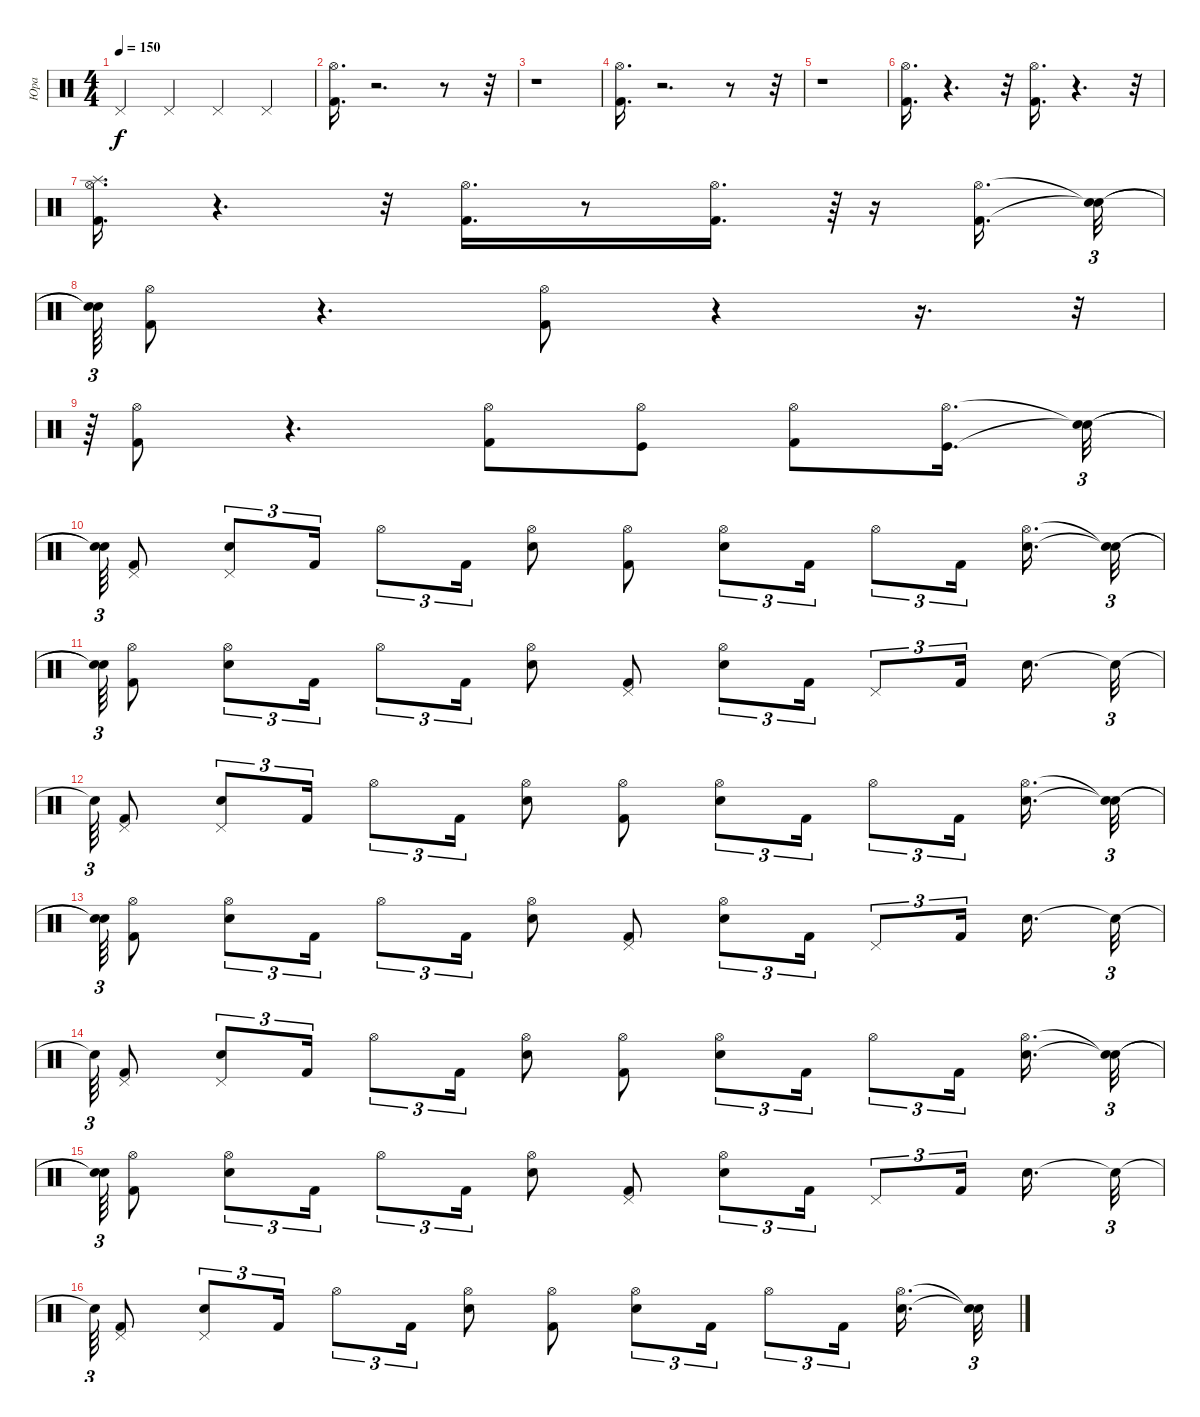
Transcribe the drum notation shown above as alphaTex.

\track ("Юра" "Юра") {instrument percussion}
\staff {score}
\articulation defaults
\ts (4 4)
\tempo 150
\clef neutral
\ks c "Pedal Hi-Hat (hit)".4{dy f} "Pedal Hi-Hat (hit)".4 "Pedal Hi-Hat (hit)".4 "Pedal Hi-Hat (hit)".4
|
("Hi-Hat (open)" "Kick (hit) 2").16{d} r.2{d} r.8 r.32 |
r.1 |
("Hi-Hat (open)" "Kick (hit) 2").16{d} r.2{d} r.8 r.32 |
r.1 |
("Hi-Hat (open)" "Kick (hit) 2").16{d} r.4{d} r.32 ("Hi-Hat (open)" "Kick (hit) 2").16{d} r.4{d} r.32 |
("Splash (hit)" "Hi-Hat (open)" "Kick (hit) 2").16{d} r.4{d} r.32 ("Hi-Hat (open)" "Kick (hit) 2").16{d} r.8 ("Hi-Hat (open)" "Kick (hit) 2").16{d} r.64{tu (3 2)} r.16 ("Hi-Hat (open)" "Kick (hit) 2").16{d} ("Snare (hit)"{t} "Snare (hit)"{t}).32{tu (3 2)} |
("Snare (hit)"{t} "Snare (hit)"{t}).64{tu (3 2)} ("Hi-Hat (open)" "Kick (hit) 2").8 r.4{d} ("Hi-Hat (open)" "Kick (hit) 2").8 r.4 r.16{d} r.32{tu (3 2)} |
r.64{tu (3 2)} ("Hi-Hat (open)" "Kick (hit) 2").8 r.4{d} ("Kick (hit) 2" "Hi-Hat (open)").8 ("Kick (hit)" "Hi-Hat (open)").8 ("Kick (hit) 2" "Hi-Hat (open)").8 ("Kick (hit)" "Hi-Hat (open)").16{d} ("Snare (hit)"{t} "Snare (hit)"{t}).32{tu (3 2)} |
("Snare (hit)"{t} "Snare (hit)"{t}).64{tu (3 2)} ("Pedal Hi-Hat (hit)" "Kick (hit) 2").8 ("Pedal Hi-Hat (hit)" "Electric Snare (hit)").8{tu (3 2)} "Kick (hit) 2".16{tu (3 2)} "Hi-Hat (open)".8{tu (3 2)} "Kick (hit) 2".16{tu (3 2)} ("Hi-Hat (open)" "Electric Snare (hit)").8 ("Hi-Hat (open)" "Kick (hit) 2").8 ("Hi-Hat (open)" "Electric Snare (hit)").8{tu (3 2)} "Kick (hit) 2".16{tu (3 2)} "Hi-Hat (open)".8{tu (3 2)} "Kick (hit) 2".16{tu (3 2) beam splitsecondary} ("Hi-Hat (open)" "Electric Snare (hit)").16{d} ("Snare (hit)"{t} "Snare (hit)"{t}).32{tu (3 2)} |
("Snare (hit)"{t} "Snare (hit)"{t}).64{tu (3 2)} ("Hi-Hat (open)" "Kick (hit) 2").8 ("Hi-Hat (open)" "Electric Snare (hit)").8{tu (3 2)} "Kick (hit) 2".16{tu (3 2)} "Hi-Hat (open)".8{tu (3 2)} "Kick (hit) 2".16{tu (3 2)} ("Electric Snare (hit)" "Hi-Hat (open)").8 ("Pedal Hi-Hat (hit)" "Kick (hit) 2").8 ("Hi-Hat (open)" "Electric Snare (hit)").8{tu (3 2)} "Kick (hit) 2".16{tu (3 2)} "Pedal Hi-Hat (hit)".8{tu (3 2)} "Kick (hit) 2".16{tu (3 2) beam splitsecondary} "Electric Snare (hit)".16{d} "Snare (hit)"{t}.32{tu (3 2)} |
"Snare (hit)"{t}.64{tu (3 2)} ("Pedal Hi-Hat (hit)" "Kick (hit) 2").8 ("Pedal Hi-Hat (hit)" "Electric Snare (hit)").8{tu (3 2)} "Kick (hit) 2".16{tu (3 2)} "Hi-Hat (open)".8{tu (3 2)} "Kick (hit) 2".16{tu (3 2)} ("Hi-Hat (open)" "Electric Snare (hit)").8 ("Hi-Hat (open)" "Kick (hit) 2").8 ("Hi-Hat (open)" "Electric Snare (hit)").8{tu (3 2)} "Kick (hit) 2".16{tu (3 2)} "Hi-Hat (open)".8{tu (3 2)} "Kick (hit) 2".16{tu (3 2) beam splitsecondary} ("Hi-Hat (open)" "Electric Snare (hit)").16{d} ("Snare (hit)"{t} "Snare (hit)"{t}).32{tu (3 2)} |
("Snare (hit)"{t} "Snare (hit)"{t}).64{tu (3 2)} ("Hi-Hat (open)" "Kick (hit) 2").8 ("Hi-Hat (open)" "Electric Snare (hit)").8{tu (3 2)} "Kick (hit) 2".16{tu (3 2)} "Hi-Hat (open)".8{tu (3 2)} "Kick (hit) 2".16{tu (3 2)} ("Hi-Hat (open)" "Electric Snare (hit)").8 ("Pedal Hi-Hat (hit)" "Kick (hit) 2").8 ("Hi-Hat (open)" "Electric Snare (hit)").8{tu (3 2)} "Kick (hit) 2".16{tu (3 2)} "Pedal Hi-Hat (hit)".8{tu (3 2)} "Kick (hit) 2".16{tu (3 2) beam splitsecondary} "Electric Snare (hit)".16{d} "Snare (hit)"{t}.32{tu (3 2)} |
"Snare (hit)"{t}.64{tu (3 2)} ("Pedal Hi-Hat (hit)" "Kick (hit) 2").8 ("Pedal Hi-Hat (hit)" "Electric Snare (hit)").8{tu (3 2)} "Kick (hit) 2".16{tu (3 2)} "Hi-Hat (open)".8{tu (3 2)} "Kick (hit) 2".16{tu (3 2)} ("Hi-Hat (open)" "Electric Snare (hit)").8 ("Hi-Hat (open)" "Kick (hit) 2").8 ("Hi-Hat (open)" "Electric Snare (hit)").8{tu (3 2)} "Kick (hit) 2".16{tu (3 2)} "Hi-Hat (open)".8{tu (3 2)} "Kick (hit) 2".16{tu (3 2) beam splitsecondary} ("Hi-Hat (open)" "Electric Snare (hit)").16{d} ("Snare (hit)"{t} "Snare (hit)"{t}).32{tu (3 2)} |
("Snare (hit)"{t} "Snare (hit)"{t}).64{tu (3 2)} ("Hi-Hat (open)" "Kick (hit) 2").8 ("Hi-Hat (open)" "Electric Snare (hit)").8{tu (3 2)} "Kick (hit) 2".16{tu (3 2)} "Hi-Hat (open)".8{tu (3 2)} "Kick (hit) 2".16{tu (3 2)} ("Hi-Hat (open)" "Electric Snare (hit)").8 ("Pedal Hi-Hat (hit)" "Kick (hit) 2").8 ("Hi-Hat (open)" "Electric Snare (hit)").8{tu (3 2)} "Kick (hit) 2".16{tu (3 2)} "Pedal Hi-Hat (hit)".8{tu (3 2)} "Kick (hit) 2".16{tu (3 2) beam splitsecondary} "Electric Snare (hit)".16{d} "Snare (hit)"{t}.32{tu (3 2)} |
"Snare (hit)"{t}.64{tu (3 2)} ("Pedal Hi-Hat (hit)" "Kick (hit) 2").8 ("Pedal Hi-Hat (hit)" "Electric Snare (hit)").8{tu (3 2)} "Kick (hit) 2".16{tu (3 2)} "Hi-Hat (open)".8{tu (3 2)} "Kick (hit) 2".16{tu (3 2)} ("Hi-Hat (open)" "Electric Snare (hit)").8 ("Hi-Hat (open)" "Kick (hit) 2").8 ("Hi-Hat (open)" "Electric Snare (hit)").8{tu (3 2)} "Kick (hit) 2".16{tu (3 2)} "Hi-Hat (open)".8{tu (3 2)} "Kick (hit) 2".16{tu (3 2) beam splitsecondary} ("Hi-Hat (open)" "Electric Snare (hit)").16{d} ("Snare (hit)"{t} "Snare (hit)"{t}).32{tu (3 2)}
